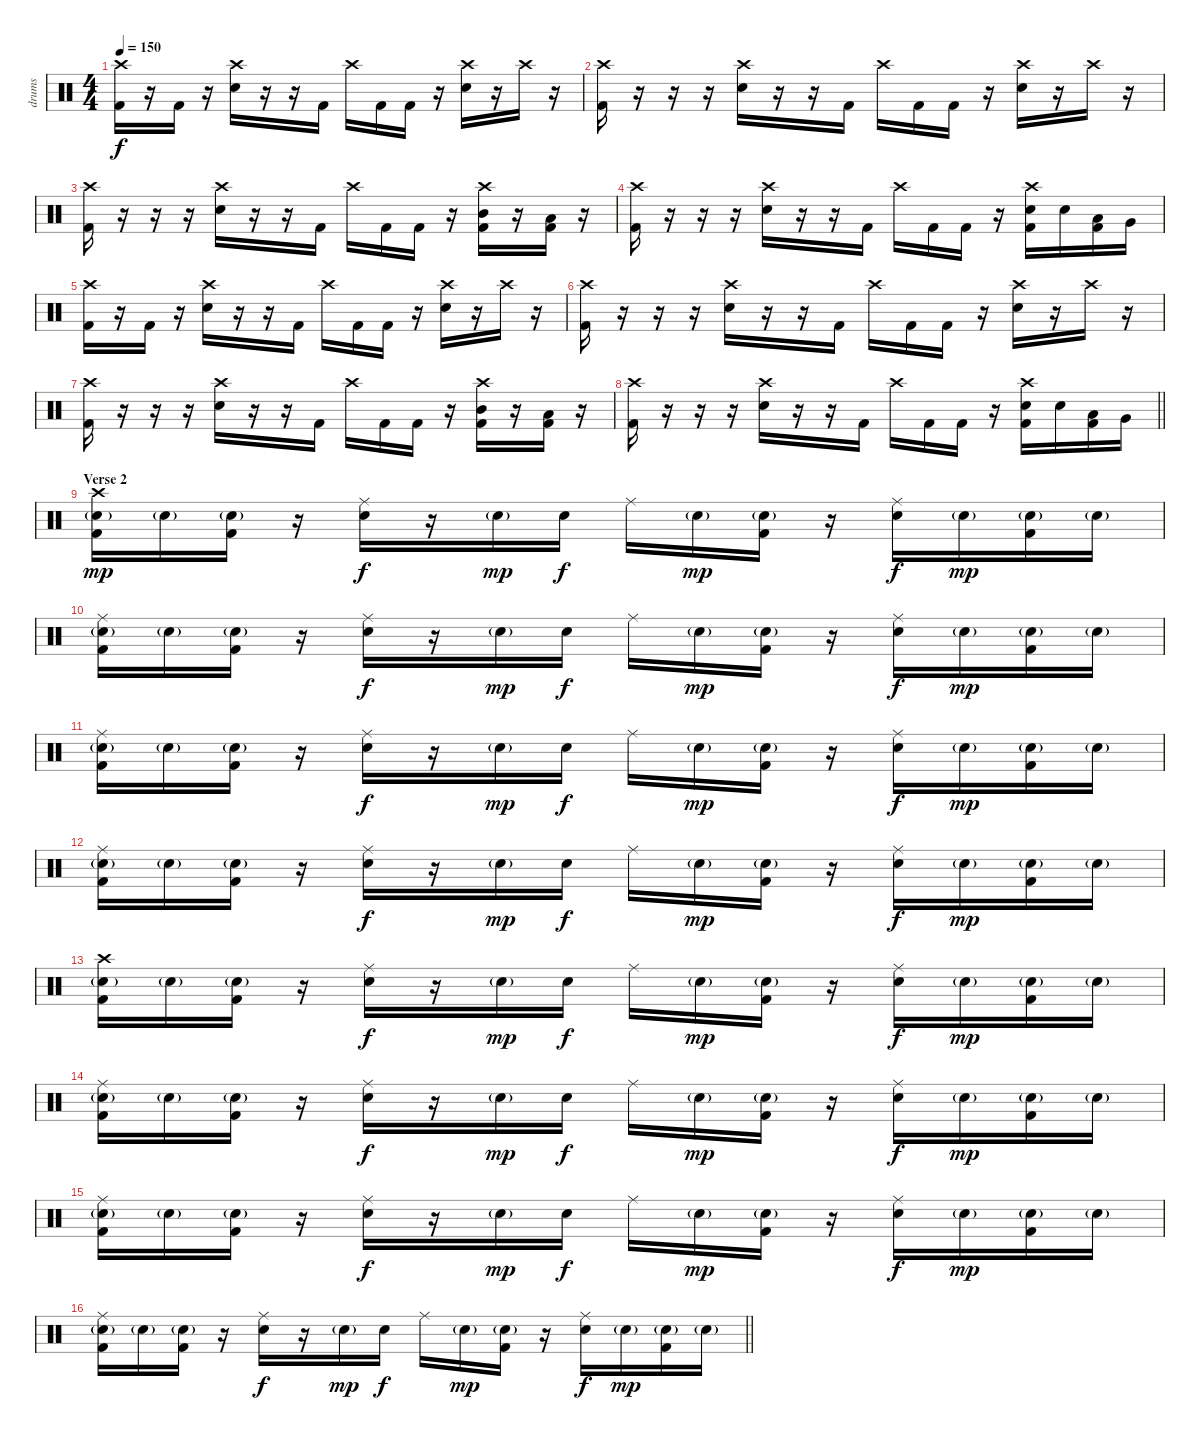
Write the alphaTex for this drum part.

\track ("drums" "drums") {instrument percussion}
\staff {score}
\articulation defaults
\ts (4 4)
\section ("" "")
\tempo 150
\clef neutral
\ks c
("Crash high (hit)" "Kick (hit) 2").16{dy f} r.16 "Kick (hit) 2".16 r.16 ("Crash high (hit)" "Snare (hit) 2").16 r.16 r.16 "Kick (hit) 2".16 "Crash high (hit)".16 "Kick (hit) 2".16 "Kick (hit) 2".16 r.16 ("Crash high (hit)" "Snare (hit) 2").16 r.16 "Crash high (hit)".16 r.16 |
("Crash high (hit)" "Kick (hit) 2").16 r.16 r.16 r.16 ("Crash high (hit)" "Snare (hit) 2").16 r.16 r.16 "Kick (hit) 2".16 "Crash high (hit)".16 "Kick (hit) 2".16 "Kick (hit) 2".16 r.16 ("Crash high (hit)" "Snare (hit) 2").16 r.16 "Crash high (hit)".16 r.16 |
("Crash high (hit)" "Kick (hit) 2").16 r.16 r.16 r.16 ("Crash high (hit)" "Snare (hit) 2").16 r.16 r.16 "Kick (hit) 2".16 "Crash high (hit)".16 "Kick (hit) 2".16 "Kick (hit) 2".16 r.16 ("Crash high (hit)" "Mid Tom (hit)" "Kick (hit) 2").16 r.16 ("Low Tom (hit)" "Kick (hit) 2").16 r.16 |
("Crash high (hit)" "Kick (hit) 2").16 r.16 r.16 r.16 ("Crash high (hit)" "Snare (hit) 2").16 r.16 r.16 "Kick (hit) 2".16 "Crash high (hit)".16 "Kick (hit) 2".16 "Kick (hit) 2".16 r.16 ("Crash high (hit)" "Snare (hit) 2" "Kick (hit) 2").16 "Snare (hit) 2".16 ("Low Tom (hit)" "Kick (hit) 2").16 "Very Low Tom (hit)".16 |
("Crash high (hit)" "Kick (hit) 2").16 r.16 "Kick (hit) 2".16 r.16 ("Crash high (hit)" "Snare (hit) 2").16 r.16 r.16 "Kick (hit) 2".16 "Crash high (hit)".16 "Kick (hit) 2".16 "Kick (hit) 2".16 r.16 ("Crash high (hit)" "Snare (hit) 2").16 r.16 "Crash high (hit)".16 r.16 |
("Crash high (hit)" "Kick (hit) 2").16 r.16 r.16 r.16 ("Crash high (hit)" "Snare (hit) 2").16 r.16 r.16 "Kick (hit) 2".16 "Crash high (hit)".16 "Kick (hit) 2".16 "Kick (hit) 2".16 r.16 ("Crash high (hit)" "Snare (hit) 2").16 r.16 "Crash high (hit)".16 r.16 |
("Crash high (hit)" "Kick (hit) 2").16 r.16 r.16 r.16 ("Crash high (hit)" "Snare (hit) 2").16 r.16 r.16 "Kick (hit) 2".16 "Crash high (hit)".16 "Kick (hit) 2".16 "Kick (hit) 2".16 r.16 ("Crash high (hit)" "Mid Tom (hit)" "Kick (hit) 2").16 r.16 ("Low Tom (hit)" "Kick (hit) 2").16 r.16 |
\barLineRight lightlight
("Crash high (hit)" "Kick (hit) 2").16 r.16 r.16 r.16 ("Crash high (hit)" "Snare (hit) 2").16 r.16 r.16 "Kick (hit) 2".16 "Crash high (hit)".16 "Kick (hit) 2".16 "Kick (hit) 2".16 r.16 ("Crash high (hit)" "Snare (hit) 2" "Kick (hit) 2").16 "Snare (hit) 2".16 ("Low Tom (hit)" "Kick (hit) 2").16 "Very Low Tom (hit)".16 |
\section ("" "Verse 2")
("Crash high (hit)" "Snare (hit) 2"{g} "Kick (hit) 2").16{dy mp} "Snare (hit) 2"{g}.16 ("Snare (hit) 2"{g} "Kick (hit) 2").16 r.16 ("Ride (middle)" "Snare (hit) 2").16{dy f} r.16 "Snare (hit) 2"{g}.16{dy mp} "Snare (hit) 2".16{dy f} "Ride (middle)".16 "Snare (hit) 2"{g}.16{dy mp} ("Snare (hit) 2"{g} "Kick (hit) 2").16 r.16 ("Ride (middle)" "Snare (hit) 2").16{dy f} "Snare (hit) 2"{g}.16{dy mp} ("Snare (hit) 2"{g} "Kick (hit) 2").16 "Snare (hit) 2"{g}.16 |
("Ride (middle)" "Snare (hit) 2"{g} "Kick (hit) 2").16 "Snare (hit) 2"{g}.16 ("Snare (hit) 2"{g} "Kick (hit) 2").16 r.16 ("Ride (middle)" "Snare (hit) 2").16{dy f} r.16 "Snare (hit) 2"{g}.16{dy mp} "Snare (hit) 2".16{dy f} "Ride (middle)".16 "Snare (hit) 2"{g}.16{dy mp} ("Snare (hit) 2"{g} "Kick (hit) 2").16 r.16 ("Ride (middle)" "Snare (hit) 2").16{dy f} "Snare (hit) 2"{g}.16{dy mp} ("Snare (hit) 2"{g} "Kick (hit) 2").16 "Snare (hit) 2"{g}.16 |
("Ride (middle)" "Snare (hit) 2"{g} "Kick (hit) 2").16 "Snare (hit) 2"{g}.16 ("Snare (hit) 2"{g} "Kick (hit) 2").16 r.16 ("Ride (middle)" "Snare (hit) 2").16{dy f} r.16 "Snare (hit) 2"{g}.16{dy mp} "Snare (hit) 2".16{dy f} "Ride (middle)".16 "Snare (hit) 2"{g}.16{dy mp} ("Snare (hit) 2"{g} "Kick (hit) 2").16 r.16 ("Ride (middle)" "Snare (hit) 2").16{dy f} "Snare (hit) 2"{g}.16{dy mp} ("Snare (hit) 2"{g} "Kick (hit) 2").16 "Snare (hit) 2"{g}.16 |
("Ride (middle)" "Snare (hit) 2"{g} "Kick (hit) 2").16 "Snare (hit) 2"{g}.16 ("Snare (hit) 2"{g} "Kick (hit) 2").16 r.16 ("Ride (middle)" "Snare (hit) 2").16{dy f} r.16 "Snare (hit) 2"{g}.16{dy mp} "Snare (hit) 2".16{dy f} "Ride (middle)".16 "Snare (hit) 2"{g}.16{dy mp} ("Snare (hit) 2"{g} "Kick (hit) 2").16 r.16 ("Ride (middle)" "Snare (hit) 2").16{dy f} "Snare (hit) 2"{g}.16{dy mp} ("Snare (hit) 2"{g} "Kick (hit) 2").16 "Snare (hit) 2"{g}.16 |
("Crash high (hit)" "Snare (hit) 2"{g} "Kick (hit) 2").16 "Snare (hit) 2"{g}.16 ("Snare (hit) 2"{g} "Kick (hit) 2").16 r.16 ("Ride (middle)" "Snare (hit) 2").16{dy f} r.16 "Snare (hit) 2"{g}.16{dy mp} "Snare (hit) 2".16{dy f} "Ride (middle)".16 "Snare (hit) 2"{g}.16{dy mp} ("Snare (hit) 2"{g} "Kick (hit) 2").16 r.16 ("Ride (middle)" "Snare (hit) 2").16{dy f} "Snare (hit) 2"{g}.16{dy mp} ("Snare (hit) 2"{g} "Kick (hit) 2").16 "Snare (hit) 2"{g}.16 |
("Ride (middle)" "Snare (hit) 2"{g} "Kick (hit) 2").16 "Snare (hit) 2"{g}.16 ("Snare (hit) 2"{g} "Kick (hit) 2").16 r.16 ("Ride (middle)" "Snare (hit) 2").16{dy f} r.16 "Snare (hit) 2"{g}.16{dy mp} "Snare (hit) 2".16{dy f} "Ride (middle)".16 "Snare (hit) 2"{g}.16{dy mp} ("Snare (hit) 2"{g} "Kick (hit) 2").16 r.16 ("Ride (middle)" "Snare (hit) 2").16{dy f} "Snare (hit) 2"{g}.16{dy mp} ("Snare (hit) 2"{g} "Kick (hit) 2").16 "Snare (hit) 2"{g}.16 |
("Ride (middle)" "Snare (hit) 2"{g} "Kick (hit) 2").16 "Snare (hit) 2"{g}.16 ("Snare (hit) 2"{g} "Kick (hit) 2").16 r.16 ("Ride (middle)" "Snare (hit) 2").16{dy f} r.16 "Snare (hit) 2"{g}.16{dy mp} "Snare (hit) 2".16{dy f} "Ride (middle)".16 "Snare (hit) 2"{g}.16{dy mp} ("Snare (hit) 2"{g} "Kick (hit) 2").16 r.16 ("Ride (middle)" "Snare (hit) 2").16{dy f} "Snare (hit) 2"{g}.16{dy mp} ("Snare (hit) 2"{g} "Kick (hit) 2").16 "Snare (hit) 2"{g}.16 |
\barLineRight lightlight
("Ride (middle)" "Snare (hit) 2"{g} "Kick (hit) 2").16 "Snare (hit) 2"{g}.16 ("Snare (hit) 2"{g} "Kick (hit) 2").16 r.16 ("Ride (middle)" "Snare (hit) 2").16{dy f} r.16 "Snare (hit) 2"{g}.16{dy mp} "Snare (hit) 2".16{dy f} "Ride (middle)".16 "Snare (hit) 2"{g}.16{dy mp} ("Snare (hit) 2"{g} "Kick (hit) 2").16 r.16 ("Ride (middle)" "Snare (hit) 2").16{dy f} "Snare (hit) 2"{g}.16{dy mp} ("Snare (hit) 2"{g} "Kick (hit) 2").16 "Snare (hit) 2"{g}.16
